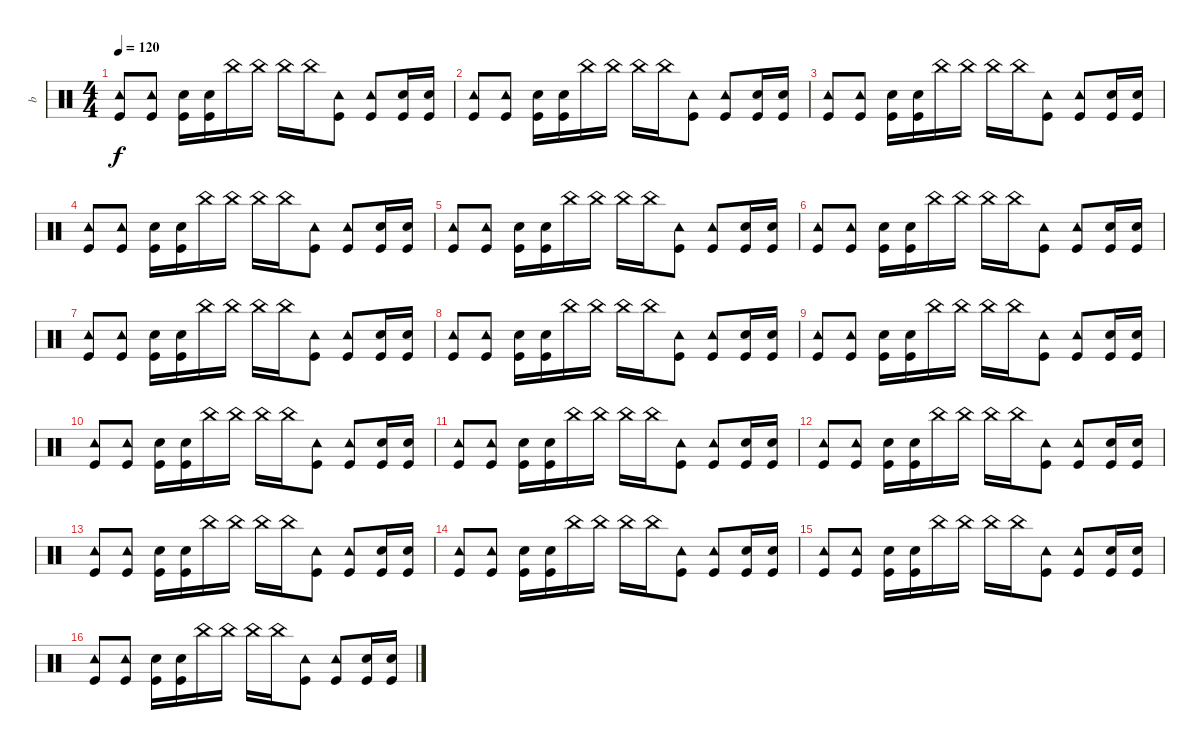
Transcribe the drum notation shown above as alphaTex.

\track ("b" "b") {instrument percussion}
\staff {score}
\articulation defaults
\ts (4 4)
\tempo 120
\clef neutral
\ks c
("Tambourine (hit)" "Kick (hit)").8{dy f} ("Tambourine (hit)" "Kick (hit)").8 ("Electric Snare (hit)" "Kick (hit)").16 ("Electric Snare (hit)" "Kick (hit)").16 "China (hit)".16 "China (hit)".16 "China (hit)".16 "China (hit)".16 ("Tambourine (hit)" "Kick (hit)").8 ("Tambourine (hit)" "Kick (hit)").8 ("Electric Snare (hit)" "Kick (hit)").16 ("Electric Snare (hit)" "Kick (hit)").16 |
("Tambourine (hit)" "Kick (hit)").8 ("Tambourine (hit)" "Kick (hit)").8 ("Electric Snare (hit)" "Kick (hit)").16 ("Electric Snare (hit)" "Kick (hit)").16 "China (hit)".16 "China (hit)".16 "China (hit)".16 "China (hit)".16 ("Tambourine (hit)" "Kick (hit)").8 ("Tambourine (hit)" "Kick (hit)").8 ("Electric Snare (hit)" "Kick (hit)").16 ("Electric Snare (hit)" "Kick (hit)").16 |
("Tambourine (hit)" "Kick (hit)").8 ("Tambourine (hit)" "Kick (hit)").8 ("Electric Snare (hit)" "Kick (hit)").16 ("Electric Snare (hit)" "Kick (hit)").16 "China (hit)".16 "China (hit)".16 "China (hit)".16 "China (hit)".16 ("Tambourine (hit)" "Kick (hit)").8 ("Tambourine (hit)" "Kick (hit)").8 ("Electric Snare (hit)" "Kick (hit)").16 ("Electric Snare (hit)" "Kick (hit)").16 |
("Tambourine (hit)" "Kick (hit)").8 ("Tambourine (hit)" "Kick (hit)").8 ("Electric Snare (hit)" "Kick (hit)").16 ("Electric Snare (hit)" "Kick (hit)").16 "China (hit)".16 "China (hit)".16 "China (hit)".16 "China (hit)".16 ("Tambourine (hit)" "Kick (hit)").8 ("Tambourine (hit)" "Kick (hit)").8 ("Electric Snare (hit)" "Kick (hit)").16 ("Electric Snare (hit)" "Kick (hit)").16 |
("Tambourine (hit)" "Kick (hit)").8 ("Tambourine (hit)" "Kick (hit)").8 ("Electric Snare (hit)" "Kick (hit)").16 ("Electric Snare (hit)" "Kick (hit)").16 "China (hit)".16 "China (hit)".16 "China (hit)".16 "China (hit)".16 ("Tambourine (hit)" "Kick (hit)").8 ("Tambourine (hit)" "Kick (hit)").8 ("Electric Snare (hit)" "Kick (hit)").16 ("Electric Snare (hit)" "Kick (hit)").16 |
("Tambourine (hit)" "Kick (hit)").8 ("Tambourine (hit)" "Kick (hit)").8 ("Electric Snare (hit)" "Kick (hit)").16 ("Electric Snare (hit)" "Kick (hit)").16 "China (hit)".16 "China (hit)".16 "China (hit)".16 "China (hit)".16 ("Tambourine (hit)" "Kick (hit)").8 ("Tambourine (hit)" "Kick (hit)").8 ("Electric Snare (hit)" "Kick (hit)").16 ("Electric Snare (hit)" "Kick (hit)").16 |
("Tambourine (hit)" "Kick (hit)").8 ("Tambourine (hit)" "Kick (hit)").8 ("Electric Snare (hit)" "Kick (hit)").16 ("Electric Snare (hit)" "Kick (hit)").16 "China (hit)".16 "China (hit)".16 "China (hit)".16 "China (hit)".16 ("Tambourine (hit)" "Kick (hit)").8 ("Tambourine (hit)" "Kick (hit)").8 ("Electric Snare (hit)" "Kick (hit)").16 ("Electric Snare (hit)" "Kick (hit)").16 |
("Tambourine (hit)" "Kick (hit)").8 ("Tambourine (hit)" "Kick (hit)").8 ("Electric Snare (hit)" "Kick (hit)").16 ("Electric Snare (hit)" "Kick (hit)").16 "China (hit)".16 "China (hit)".16 "China (hit)".16 "China (hit)".16 ("Tambourine (hit)" "Kick (hit)").8 ("Tambourine (hit)" "Kick (hit)").8 ("Electric Snare (hit)" "Kick (hit)").16 ("Electric Snare (hit)" "Kick (hit)").16 |
("Tambourine (hit)" "Kick (hit)").8 ("Tambourine (hit)" "Kick (hit)").8 ("Electric Snare (hit)" "Kick (hit)").16 ("Electric Snare (hit)" "Kick (hit)").16 "China (hit)".16 "China (hit)".16 "China (hit)".16 "China (hit)".16 ("Tambourine (hit)" "Kick (hit)").8 ("Tambourine (hit)" "Kick (hit)").8 ("Electric Snare (hit)" "Kick (hit)").16 ("Electric Snare (hit)" "Kick (hit)").16 |
("Tambourine (hit)" "Kick (hit)").8 ("Tambourine (hit)" "Kick (hit)").8 ("Electric Snare (hit)" "Kick (hit)").16 ("Electric Snare (hit)" "Kick (hit)").16 "China (hit)".16 "China (hit)".16 "China (hit)".16 "China (hit)".16 ("Tambourine (hit)" "Kick (hit)").8 ("Tambourine (hit)" "Kick (hit)").8 ("Electric Snare (hit)" "Kick (hit)").16 ("Electric Snare (hit)" "Kick (hit)").16 |
("Tambourine (hit)" "Kick (hit)").8 ("Tambourine (hit)" "Kick (hit)").8 ("Electric Snare (hit)" "Kick (hit)").16 ("Electric Snare (hit)" "Kick (hit)").16 "China (hit)".16 "China (hit)".16 "China (hit)".16 "China (hit)".16 ("Tambourine (hit)" "Kick (hit)").8 ("Tambourine (hit)" "Kick (hit)").8 ("Electric Snare (hit)" "Kick (hit)").16 ("Electric Snare (hit)" "Kick (hit)").16 |
("Tambourine (hit)" "Kick (hit)").8 ("Tambourine (hit)" "Kick (hit)").8 ("Electric Snare (hit)" "Kick (hit)").16 ("Electric Snare (hit)" "Kick (hit)").16 "China (hit)".16 "China (hit)".16 "China (hit)".16 "China (hit)".16 ("Tambourine (hit)" "Kick (hit)").8 ("Tambourine (hit)" "Kick (hit)").8 ("Electric Snare (hit)" "Kick (hit)").16 ("Electric Snare (hit)" "Kick (hit)").16 |
("Tambourine (hit)" "Kick (hit)").8 ("Tambourine (hit)" "Kick (hit)").8 ("Electric Snare (hit)" "Kick (hit)").16 ("Electric Snare (hit)" "Kick (hit)").16 "China (hit)".16 "China (hit)".16 "China (hit)".16 "China (hit)".16 ("Tambourine (hit)" "Kick (hit)").8 ("Tambourine (hit)" "Kick (hit)").8 ("Electric Snare (hit)" "Kick (hit)").16 ("Electric Snare (hit)" "Kick (hit)").16 |
("Tambourine (hit)" "Kick (hit)").8 ("Tambourine (hit)" "Kick (hit)").8 ("Electric Snare (hit)" "Kick (hit)").16 ("Electric Snare (hit)" "Kick (hit)").16 "China (hit)".16 "China (hit)".16 "China (hit)".16 "China (hit)".16 ("Tambourine (hit)" "Kick (hit)").8 ("Tambourine (hit)" "Kick (hit)").8 ("Electric Snare (hit)" "Kick (hit)").16 ("Electric Snare (hit)" "Kick (hit)").16 |
("Tambourine (hit)" "Kick (hit)").8 ("Tambourine (hit)" "Kick (hit)").8 ("Electric Snare (hit)" "Kick (hit)").16 ("Electric Snare (hit)" "Kick (hit)").16 "China (hit)".16 "China (hit)".16 "China (hit)".16 "China (hit)".16 ("Tambourine (hit)" "Kick (hit)").8 ("Tambourine (hit)" "Kick (hit)").8 ("Electric Snare (hit)" "Kick (hit)").16 ("Electric Snare (hit)" "Kick (hit)").16 |
("Tambourine (hit)" "Kick (hit)").8 ("Tambourine (hit)" "Kick (hit)").8 ("Electric Snare (hit)" "Kick (hit)").16 ("Electric Snare (hit)" "Kick (hit)").16 "China (hit)".16 "China (hit)".16 "China (hit)".16 "China (hit)".16 ("Tambourine (hit)" "Kick (hit)").8 ("Tambourine (hit)" "Kick (hit)").8 ("Electric Snare (hit)" "Kick (hit)").16 ("Electric Snare (hit)" "Kick (hit)").16
